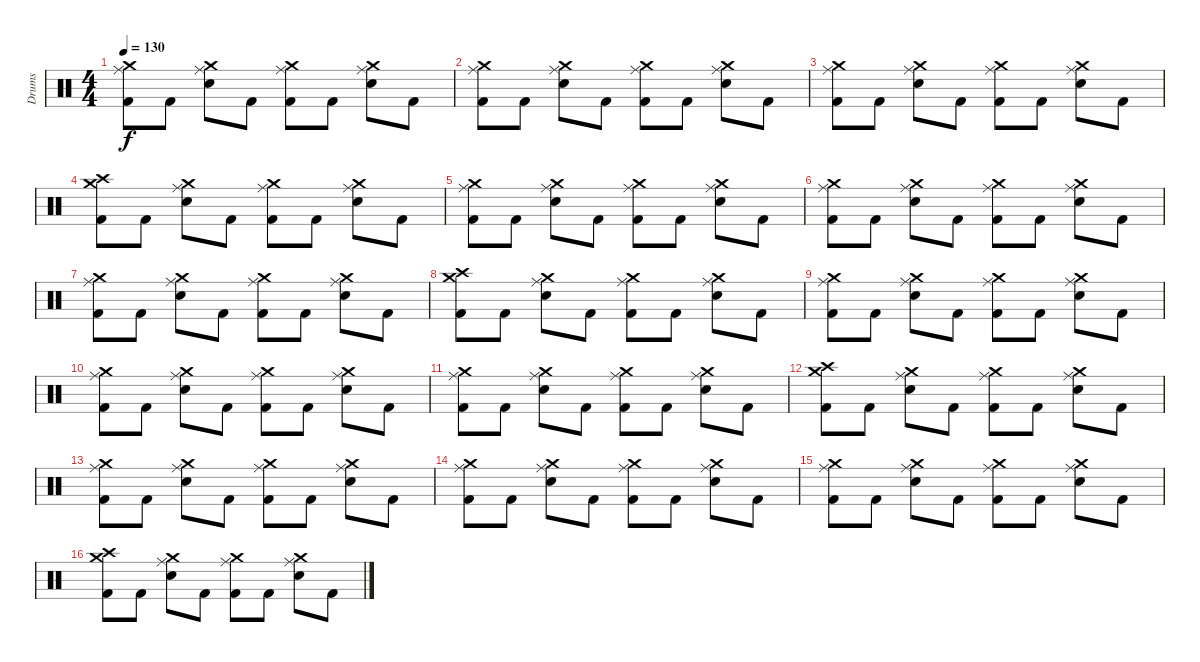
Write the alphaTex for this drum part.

\track ("Drums" "Drums") {instrument percussion}
\staff {score}
\articulation defaults
\ts (4 4)
\tempo 130
\clef neutral
\ks c
("Ride (middle)" "Crash medium (hit)" "Kick (hit) 2").8{dy f} "Kick (hit) 2".8 ("Ride (middle)" "Electric Snare (hit)" "Crash medium (hit)").8 "Kick (hit) 2".8 ("Ride (middle)" "Crash medium (hit)" "Kick (hit) 2").8 "Kick (hit) 2".8 ("Ride (middle)" "Electric Snare (hit)" "Crash medium (hit)").8 "Kick (hit) 2".8 |
("Ride (middle)" "Crash medium (hit)" "Kick (hit) 2").8 "Kick (hit) 2".8 ("Ride (middle)" "Electric Snare (hit)" "Crash medium (hit)").8 "Kick (hit) 2".8 ("Ride (middle)" "Crash medium (hit)" "Kick (hit) 2").8 "Kick (hit) 2".8 ("Ride (middle)" "Electric Snare (hit)" "Crash medium (hit)").8 "Kick (hit) 2".8 |
("Ride (middle)" "Crash medium (hit)" "Kick (hit) 2").8 "Kick (hit) 2".8 ("Ride (middle)" "Electric Snare (hit)" "Crash medium (hit)").8 "Kick (hit) 2".8 ("Ride (middle)" "Crash medium (hit)" "Kick (hit) 2").8 "Kick (hit) 2".8 ("Ride (middle)" "Electric Snare (hit)" "Crash medium (hit)").8 "Kick (hit) 2".8 |
("Crash high (hit)" "Crash medium (hit)" "Kick (hit) 2").8 "Kick (hit) 2".8 ("Ride (middle)" "Electric Snare (hit)" "Crash medium (hit)").8 "Kick (hit) 2".8 ("Ride (middle)" "Crash medium (hit)" "Kick (hit) 2").8 "Kick (hit) 2".8 ("Ride (middle)" "Electric Snare (hit)" "Crash medium (hit)").8 "Kick (hit) 2".8 |
("Ride (middle)" "Crash medium (hit)" "Kick (hit) 2").8 "Kick (hit) 2".8 ("Ride (middle)" "Electric Snare (hit)" "Crash medium (hit)").8 "Kick (hit) 2".8 ("Ride (middle)" "Crash medium (hit)" "Kick (hit) 2").8 "Kick (hit) 2".8 ("Ride (middle)" "Electric Snare (hit)" "Crash medium (hit)").8 "Kick (hit) 2".8 |
("Ride (middle)" "Crash medium (hit)" "Kick (hit) 2").8 "Kick (hit) 2".8 ("Ride (middle)" "Electric Snare (hit)" "Crash medium (hit)").8 "Kick (hit) 2".8 ("Ride (middle)" "Crash medium (hit)" "Kick (hit) 2").8 "Kick (hit) 2".8 ("Ride (middle)" "Electric Snare (hit)" "Crash medium (hit)").8 "Kick (hit) 2".8 |
("Ride (middle)" "Crash medium (hit)" "Kick (hit) 2").8 "Kick (hit) 2".8 ("Ride (middle)" "Electric Snare (hit)" "Crash medium (hit)").8 "Kick (hit) 2".8 ("Ride (middle)" "Crash medium (hit)" "Kick (hit) 2").8 "Kick (hit) 2".8 ("Ride (middle)" "Electric Snare (hit)" "Crash medium (hit)").8 "Kick (hit) 2".8 |
("Crash high (hit)" "Crash medium (hit)" "Kick (hit) 2").8 "Kick (hit) 2".8 ("Ride (middle)" "Electric Snare (hit)" "Crash medium (hit)").8 "Kick (hit) 2".8 ("Ride (middle)" "Crash medium (hit)" "Kick (hit) 2").8 "Kick (hit) 2".8 ("Ride (middle)" "Electric Snare (hit)" "Crash medium (hit)").8 "Kick (hit) 2".8 |
("Ride (middle)" "Crash medium (hit)" "Kick (hit) 2").8 "Kick (hit) 2".8 ("Ride (middle)" "Electric Snare (hit)" "Crash medium (hit)").8 "Kick (hit) 2".8 ("Ride (middle)" "Crash medium (hit)" "Kick (hit) 2").8 "Kick (hit) 2".8 ("Ride (middle)" "Electric Snare (hit)" "Crash medium (hit)").8 "Kick (hit) 2".8 |
("Ride (middle)" "Crash medium (hit)" "Kick (hit) 2").8 "Kick (hit) 2".8 ("Ride (middle)" "Electric Snare (hit)" "Crash medium (hit)").8 "Kick (hit) 2".8 ("Ride (middle)" "Crash medium (hit)" "Kick (hit) 2").8 "Kick (hit) 2".8 ("Ride (middle)" "Electric Snare (hit)" "Crash medium (hit)").8 "Kick (hit) 2".8 |
("Ride (middle)" "Crash medium (hit)" "Kick (hit) 2").8 "Kick (hit) 2".8 ("Ride (middle)" "Electric Snare (hit)" "Crash medium (hit)").8 "Kick (hit) 2".8 ("Ride (middle)" "Crash medium (hit)" "Kick (hit) 2").8 "Kick (hit) 2".8 ("Ride (middle)" "Electric Snare (hit)" "Crash medium (hit)").8 "Kick (hit) 2".8 |
("Crash high (hit)" "Crash medium (hit)" "Kick (hit) 2").8 "Kick (hit) 2".8 ("Ride (middle)" "Electric Snare (hit)" "Crash medium (hit)").8 "Kick (hit) 2".8 ("Ride (middle)" "Crash medium (hit)" "Kick (hit) 2").8 "Kick (hit) 2".8 ("Ride (middle)" "Electric Snare (hit)" "Crash medium (hit)").8 "Kick (hit) 2".8 |
("Ride (middle)" "Crash medium (hit)" "Kick (hit) 2").8 "Kick (hit) 2".8 ("Ride (middle)" "Electric Snare (hit)" "Crash medium (hit)").8 "Kick (hit) 2".8 ("Ride (middle)" "Crash medium (hit)" "Kick (hit) 2").8 "Kick (hit) 2".8 ("Ride (middle)" "Electric Snare (hit)" "Crash medium (hit)").8 "Kick (hit) 2".8 |
("Ride (middle)" "Crash medium (hit)" "Kick (hit) 2").8 "Kick (hit) 2".8 ("Ride (middle)" "Electric Snare (hit)" "Crash medium (hit)").8 "Kick (hit) 2".8 ("Ride (middle)" "Crash medium (hit)" "Kick (hit) 2").8 "Kick (hit) 2".8 ("Ride (middle)" "Electric Snare (hit)" "Crash medium (hit)").8 "Kick (hit) 2".8 |
("Ride (middle)" "Crash medium (hit)" "Kick (hit) 2").8 "Kick (hit) 2".8 ("Ride (middle)" "Electric Snare (hit)" "Crash medium (hit)").8 "Kick (hit) 2".8 ("Ride (middle)" "Crash medium (hit)" "Kick (hit) 2").8 "Kick (hit) 2".8 ("Ride (middle)" "Electric Snare (hit)" "Crash medium (hit)").8 "Kick (hit) 2".8 |
("Crash high (hit)" "Crash medium (hit)" "Kick (hit) 2").8 "Kick (hit) 2".8 ("Ride (middle)" "Electric Snare (hit)" "Crash medium (hit)").8 "Kick (hit) 2".8 ("Ride (middle)" "Crash medium (hit)" "Kick (hit) 2").8 "Kick (hit) 2".8 ("Ride (middle)" "Electric Snare (hit)" "Crash medium (hit)").8 "Kick (hit) 2".8
